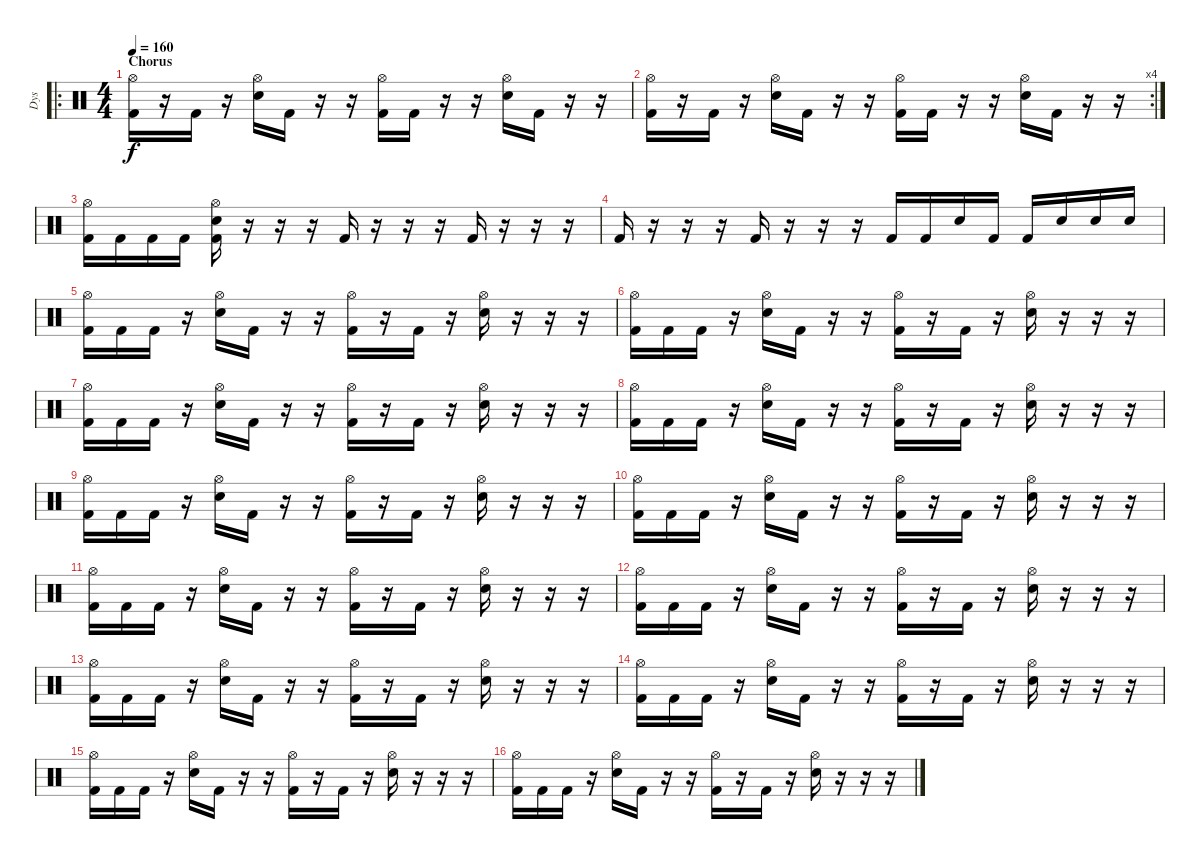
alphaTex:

\track ("Dys" "Dys") {instrument percussion}
\staff {score}
\articulation defaults
\ro
\ts (4 4)
\section ("" "Chorus")
\tempo 160
\clef neutral
\ks c
("Hi-Hat (open)" "Kick (hit) 2").16{dy f} r.16 "Kick (hit) 2".16 r.16 ("Hi-Hat (open)" "Snare (hit) 2").16 "Kick (hit) 2".16 r.16 r.16 ("Hi-Hat (open)" "Kick (hit) 2").16 "Kick (hit) 2".16 r.16 r.16 ("Hi-Hat (open)" "Snare (hit) 2").16 "Kick (hit) 2".16 r.16 r.16 |
\rc 4
("Hi-Hat (open)" "Kick (hit) 2").16 r.16 "Kick (hit) 2".16 r.16 ("Hi-Hat (open)" "Snare (hit) 2").16 "Kick (hit) 2".16 r.16 r.16 ("Hi-Hat (open)" "Kick (hit) 2").16 "Kick (hit) 2".16 r.16 r.16 ("Hi-Hat (open)" "Snare (hit) 2").16 "Kick (hit) 2".16 r.16 r.16 |
("Hi-Hat (open)" "Kick (hit) 2").16 "Kick (hit) 2".16 "Kick (hit) 2".16 "Kick (hit) 2".16 ("Hi-Hat (open)" "Snare (hit) 2" "Kick (hit) 2").16 r.16 r.16 r.16 "Kick (hit) 2".16 r.16 r.16 r.16 "Kick (hit) 2".16 r.16 r.16 r.16 |
"Kick (hit) 2".16 r.16 r.16 r.16 "Kick (hit) 2".16 r.16 r.16 r.16 "Kick (hit) 2".16 "Kick (hit) 2".16 "Snare (hit) 2".16 "Kick (hit) 2".16 "Kick (hit) 2".16 "Snare (hit) 2".16 "Snare (hit) 2".16 "Snare (hit) 2".16 |
("Hi-Hat (open)" "Kick (hit) 2").16 "Kick (hit) 2".16 "Kick (hit) 2".16 r.16 ("Hi-Hat (open)" "Snare (hit) 2").16 "Kick (hit) 2".16 r.16 r.16 ("Hi-Hat (open)" "Kick (hit) 2").16 r.16 "Kick (hit) 2".16 r.16 ("Hi-Hat (open)" "Snare (hit) 2").16 r.16 r.16 r.16 |
("Hi-Hat (open)" "Kick (hit) 2").16 "Kick (hit) 2".16 "Kick (hit) 2".16 r.16 ("Hi-Hat (open)" "Snare (hit) 2").16 "Kick (hit) 2".16 r.16 r.16 ("Hi-Hat (open)" "Kick (hit) 2").16 r.16 "Kick (hit) 2".16 r.16 ("Hi-Hat (open)" "Snare (hit) 2").16 r.16 r.16 r.16 |
("Hi-Hat (open)" "Kick (hit) 2").16 "Kick (hit) 2".16 "Kick (hit) 2".16 r.16 ("Hi-Hat (open)" "Snare (hit) 2").16 "Kick (hit) 2".16 r.16 r.16 ("Hi-Hat (open)" "Kick (hit) 2").16 r.16 "Kick (hit) 2".16 r.16 ("Hi-Hat (open)" "Snare (hit) 2").16 r.16 r.16 r.16 |
("Hi-Hat (open)" "Kick (hit) 2").16 "Kick (hit) 2".16 "Kick (hit) 2".16 r.16 ("Hi-Hat (open)" "Snare (hit) 2").16 "Kick (hit) 2".16 r.16 r.16 ("Hi-Hat (open)" "Kick (hit) 2").16 r.16 "Kick (hit) 2".16 r.16 ("Hi-Hat (open)" "Snare (hit) 2").16 r.16 r.16 r.16 |
("Hi-Hat (open)" "Kick (hit) 2").16 "Kick (hit) 2".16 "Kick (hit) 2".16 r.16 ("Hi-Hat (open)" "Snare (hit) 2").16 "Kick (hit) 2".16 r.16 r.16 ("Hi-Hat (open)" "Kick (hit) 2").16 r.16 "Kick (hit) 2".16 r.16 ("Hi-Hat (open)" "Snare (hit) 2").16 r.16 r.16 r.16 |
("Hi-Hat (open)" "Kick (hit) 2").16 "Kick (hit) 2".16 "Kick (hit) 2".16 r.16 ("Hi-Hat (open)" "Snare (hit) 2").16 "Kick (hit) 2".16 r.16 r.16 ("Hi-Hat (open)" "Kick (hit) 2").16 r.16 "Kick (hit) 2".16 r.16 ("Hi-Hat (open)" "Snare (hit) 2").16 r.16 r.16 r.16 |
("Hi-Hat (open)" "Kick (hit) 2").16 "Kick (hit) 2".16 "Kick (hit) 2".16 r.16 ("Hi-Hat (open)" "Snare (hit) 2").16 "Kick (hit) 2".16 r.16 r.16 ("Hi-Hat (open)" "Kick (hit) 2").16 r.16 "Kick (hit) 2".16 r.16 ("Hi-Hat (open)" "Snare (hit) 2").16 r.16 r.16 r.16 |
("Hi-Hat (open)" "Kick (hit) 2").16 "Kick (hit) 2".16 "Kick (hit) 2".16 r.16 ("Hi-Hat (open)" "Snare (hit) 2").16 "Kick (hit) 2".16 r.16 r.16 ("Hi-Hat (open)" "Kick (hit) 2").16 r.16 "Kick (hit) 2".16 r.16 ("Hi-Hat (open)" "Snare (hit) 2").16 r.16 r.16 r.16 |
("Hi-Hat (open)" "Kick (hit) 2").16 "Kick (hit) 2".16 "Kick (hit) 2".16 r.16 ("Hi-Hat (open)" "Snare (hit) 2").16 "Kick (hit) 2".16 r.16 r.16 ("Hi-Hat (open)" "Kick (hit) 2").16 r.16 "Kick (hit) 2".16 r.16 ("Hi-Hat (open)" "Snare (hit) 2").16 r.16 r.16 r.16 |
("Hi-Hat (open)" "Kick (hit) 2").16 "Kick (hit) 2".16 "Kick (hit) 2".16 r.16 ("Hi-Hat (open)" "Snare (hit) 2").16 "Kick (hit) 2".16 r.16 r.16 ("Hi-Hat (open)" "Kick (hit) 2").16 r.16 "Kick (hit) 2".16 r.16 ("Hi-Hat (open)" "Snare (hit) 2").16 r.16 r.16 r.16 |
("Hi-Hat (open)" "Kick (hit) 2").16 "Kick (hit) 2".16 "Kick (hit) 2".16 r.16 ("Hi-Hat (open)" "Snare (hit) 2").16 "Kick (hit) 2".16 r.16 r.16 ("Hi-Hat (open)" "Kick (hit) 2").16 r.16 "Kick (hit) 2".16 r.16 ("Hi-Hat (open)" "Snare (hit) 2").16 r.16 r.16 r.16 |
("Hi-Hat (open)" "Kick (hit) 2").16 "Kick (hit) 2".16 "Kick (hit) 2".16 r.16 ("Hi-Hat (open)" "Snare (hit) 2").16 "Kick (hit) 2".16 r.16 r.16 ("Hi-Hat (open)" "Kick (hit) 2").16 r.16 "Kick (hit) 2".16 r.16 ("Hi-Hat (open)" "Snare (hit) 2").16 r.16 r.16 r.16
